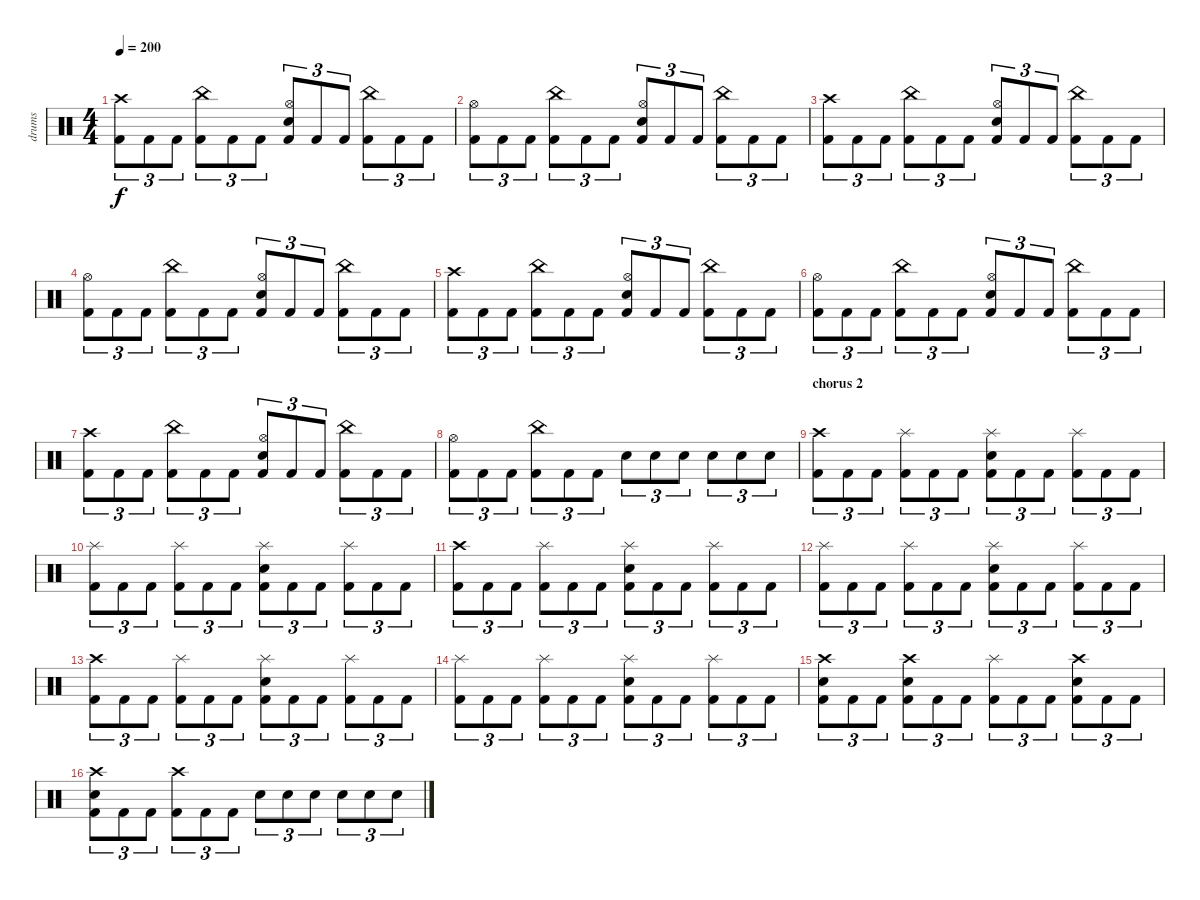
\track ("drums" "drums") {instrument percussion}
\staff {score}
\articulation defaults
\ts (4 4)
\tempo 200
\clef neutral
\ks c
("Crash high (hit)" "Kick (hit) 2").8{tu (3 2) dy f} "Kick (hit) 2".8{tu (3 2)} "Kick (hit) 2".8{tu (3 2)} ("China (hit)" "Kick (hit) 2").8{tu (3 2)} "Kick (hit) 2".8{tu (3 2)} "Kick (hit) 2".8{tu (3 2)} ("Hi-Hat (open)" "Electric Snare (hit)" "Kick (hit) 2").8{tu (3 2)} "Kick (hit) 2".8{tu (3 2)} "Kick (hit) 2".8{tu (3 2)} ("China (hit)" "Kick (hit) 2").8{tu (3 2)} "Kick (hit) 2".8{tu (3 2)} "Kick (hit) 2".8{tu (3 2)} |
("Hi-Hat (open)" "Kick (hit) 2").8{tu (3 2)} "Kick (hit) 2".8{tu (3 2)} "Kick (hit) 2".8{tu (3 2)} ("China (hit)" "Kick (hit) 2").8{tu (3 2)} "Kick (hit) 2".8{tu (3 2)} "Kick (hit) 2".8{tu (3 2)} ("Hi-Hat (open)" "Electric Snare (hit)" "Kick (hit) 2").8{tu (3 2)} "Kick (hit) 2".8{tu (3 2)} "Kick (hit) 2".8{tu (3 2)} ("China (hit)" "Kick (hit) 2").8{tu (3 2)} "Kick (hit) 2".8{tu (3 2)} "Kick (hit) 2".8{tu (3 2)} |
("Crash high (hit)" "Kick (hit) 2").8{tu (3 2)} "Kick (hit) 2".8{tu (3 2)} "Kick (hit) 2".8{tu (3 2)} ("China (hit)" "Kick (hit) 2").8{tu (3 2)} "Kick (hit) 2".8{tu (3 2)} "Kick (hit) 2".8{tu (3 2)} ("Hi-Hat (open)" "Electric Snare (hit)" "Kick (hit) 2").8{tu (3 2)} "Kick (hit) 2".8{tu (3 2)} "Kick (hit) 2".8{tu (3 2)} ("China (hit)" "Kick (hit) 2").8{tu (3 2)} "Kick (hit) 2".8{tu (3 2)} "Kick (hit) 2".8{tu (3 2)} |
("Hi-Hat (open)" "Kick (hit) 2").8{tu (3 2)} "Kick (hit) 2".8{tu (3 2)} "Kick (hit) 2".8{tu (3 2)} ("China (hit)" "Kick (hit) 2").8{tu (3 2)} "Kick (hit) 2".8{tu (3 2)} "Kick (hit) 2".8{tu (3 2)} ("Hi-Hat (open)" "Electric Snare (hit)" "Kick (hit) 2").8{tu (3 2)} "Kick (hit) 2".8{tu (3 2)} "Kick (hit) 2".8{tu (3 2)} ("China (hit)" "Kick (hit) 2").8{tu (3 2)} "Kick (hit) 2".8{tu (3 2)} "Kick (hit) 2".8{tu (3 2)} |
("Crash high (hit)" "Kick (hit) 2").8{tu (3 2)} "Kick (hit) 2".8{tu (3 2)} "Kick (hit) 2".8{tu (3 2)} ("China (hit)" "Kick (hit) 2").8{tu (3 2)} "Kick (hit) 2".8{tu (3 2)} "Kick (hit) 2".8{tu (3 2)} ("Hi-Hat (open)" "Electric Snare (hit)" "Kick (hit) 2").8{tu (3 2)} "Kick (hit) 2".8{tu (3 2)} "Kick (hit) 2".8{tu (3 2)} ("China (hit)" "Kick (hit) 2").8{tu (3 2)} "Kick (hit) 2".8{tu (3 2)} "Kick (hit) 2".8{tu (3 2)} |
("Hi-Hat (open)" "Kick (hit) 2").8{tu (3 2)} "Kick (hit) 2".8{tu (3 2)} "Kick (hit) 2".8{tu (3 2)} ("China (hit)" "Kick (hit) 2").8{tu (3 2)} "Kick (hit) 2".8{tu (3 2)} "Kick (hit) 2".8{tu (3 2)} ("Hi-Hat (open)" "Electric Snare (hit)" "Kick (hit) 2").8{tu (3 2)} "Kick (hit) 2".8{tu (3 2)} "Kick (hit) 2".8{tu (3 2)} ("China (hit)" "Kick (hit) 2").8{tu (3 2)} "Kick (hit) 2".8{tu (3 2)} "Kick (hit) 2".8{tu (3 2)} |
("Crash high (hit)" "Kick (hit) 2").8{tu (3 2)} "Kick (hit) 2".8{tu (3 2)} "Kick (hit) 2".8{tu (3 2)} ("China (hit)" "Kick (hit) 2").8{tu (3 2)} "Kick (hit) 2".8{tu (3 2)} "Kick (hit) 2".8{tu (3 2)} ("Hi-Hat (open)" "Electric Snare (hit)" "Kick (hit) 2").8{tu (3 2)} "Kick (hit) 2".8{tu (3 2)} "Kick (hit) 2".8{tu (3 2)} ("China (hit)" "Kick (hit) 2").8{tu (3 2)} "Kick (hit) 2".8{tu (3 2)} "Kick (hit) 2".8{tu (3 2)} |
("Hi-Hat (open)" "Kick (hit) 2").8{tu (3 2)} "Kick (hit) 2".8{tu (3 2)} "Kick (hit) 2".8{tu (3 2)} ("China (hit)" "Kick (hit) 2").8{tu (3 2)} "Kick (hit) 2".8{tu (3 2)} "Kick (hit) 2".8{tu (3 2)} "Electric Snare (hit)".8{tu (3 2)} "Electric Snare (hit)".8{tu (3 2)} "Electric Snare (hit)".8{tu (3 2)} "Electric Snare (hit)".8{tu (3 2)} "Electric Snare (hit)".8{tu (3 2)} "Electric Snare (hit)".8{tu (3 2)} |
\section ("" "chorus 2")
("Crash high (hit)" "Kick (hit) 2").8{tu (3 2)} "Kick (hit) 2".8{tu (3 2)} "Kick (hit) 2".8{tu (3 2)} ("Splash (hit)" "Kick (hit) 2").8{tu (3 2)} "Kick (hit) 2".8{tu (3 2)} "Kick (hit) 2".8{tu (3 2)} ("Splash (hit)" "Electric Snare (hit)" "Kick (hit) 2").8{tu (3 2)} "Kick (hit) 2".8{tu (3 2)} "Kick (hit) 2".8{tu (3 2)} ("Splash (hit)" "Kick (hit) 2").8{tu (3 2)} "Kick (hit) 2".8{tu (3 2)} "Kick (hit) 2".8{tu (3 2)} |
("Splash (hit)" "Kick (hit) 2").8{tu (3 2)} "Kick (hit) 2".8{tu (3 2)} "Kick (hit) 2".8{tu (3 2)} ("Splash (hit)" "Kick (hit) 2").8{tu (3 2)} "Kick (hit) 2".8{tu (3 2)} "Kick (hit) 2".8{tu (3 2)} ("Splash (hit)" "Electric Snare (hit)" "Kick (hit) 2").8{tu (3 2)} "Kick (hit) 2".8{tu (3 2)} "Kick (hit) 2".8{tu (3 2)} ("Splash (hit)" "Kick (hit) 2").8{tu (3 2)} "Kick (hit) 2".8{tu (3 2)} "Kick (hit) 2".8{tu (3 2)} |
("Crash high (hit)" "Kick (hit) 2").8{tu (3 2)} "Kick (hit) 2".8{tu (3 2)} "Kick (hit) 2".8{tu (3 2)} ("Splash (hit)" "Kick (hit) 2").8{tu (3 2)} "Kick (hit) 2".8{tu (3 2)} "Kick (hit) 2".8{tu (3 2)} ("Splash (hit)" "Electric Snare (hit)" "Kick (hit) 2").8{tu (3 2)} "Kick (hit) 2".8{tu (3 2)} "Kick (hit) 2".8{tu (3 2)} ("Splash (hit)" "Kick (hit) 2").8{tu (3 2)} "Kick (hit) 2".8{tu (3 2)} "Kick (hit) 2".8{tu (3 2)} |
("Splash (hit)" "Kick (hit) 2").8{tu (3 2)} "Kick (hit) 2".8{tu (3 2)} "Kick (hit) 2".8{tu (3 2)} ("Splash (hit)" "Kick (hit) 2").8{tu (3 2)} "Kick (hit) 2".8{tu (3 2)} "Kick (hit) 2".8{tu (3 2)} ("Splash (hit)" "Electric Snare (hit)" "Kick (hit) 2").8{tu (3 2)} "Kick (hit) 2".8{tu (3 2)} "Kick (hit) 2".8{tu (3 2)} ("Splash (hit)" "Kick (hit) 2").8{tu (3 2)} "Kick (hit) 2".8{tu (3 2)} "Kick (hit) 2".8{tu (3 2)} |
("Crash high (hit)" "Kick (hit) 2").8{tu (3 2)} "Kick (hit) 2".8{tu (3 2)} "Kick (hit) 2".8{tu (3 2)} ("Splash (hit)" "Kick (hit) 2").8{tu (3 2)} "Kick (hit) 2".8{tu (3 2)} "Kick (hit) 2".8{tu (3 2)} ("Splash (hit)" "Electric Snare (hit)" "Kick (hit) 2").8{tu (3 2)} "Kick (hit) 2".8{tu (3 2)} "Kick (hit) 2".8{tu (3 2)} ("Splash (hit)" "Kick (hit) 2").8{tu (3 2)} "Kick (hit) 2".8{tu (3 2)} "Kick (hit) 2".8{tu (3 2)} |
("Splash (hit)" "Kick (hit) 2").8{tu (3 2)} "Kick (hit) 2".8{tu (3 2)} "Kick (hit) 2".8{tu (3 2)} ("Splash (hit)" "Kick (hit) 2").8{tu (3 2)} "Kick (hit) 2".8{tu (3 2)} "Kick (hit) 2".8{tu (3 2)} ("Splash (hit)" "Electric Snare (hit)" "Kick (hit) 2").8{tu (3 2)} "Kick (hit) 2".8{tu (3 2)} "Kick (hit) 2".8{tu (3 2)} ("Splash (hit)" "Kick (hit) 2").8{tu (3 2)} "Kick (hit) 2".8{tu (3 2)} "Kick (hit) 2".8{tu (3 2)} |
("Crash high (hit)" "Electric Snare (hit)" "Kick (hit) 2").8{tu (3 2)} "Kick (hit) 2".8{tu (3 2)} "Kick (hit) 2".8{tu (3 2)} ("Crash high (hit)" "Electric Snare (hit)" "Kick (hit) 2").8{tu (3 2)} "Kick (hit) 2".8{tu (3 2)} "Kick (hit) 2".8{tu (3 2)} ("Splash (hit)" "Kick (hit) 2").8{tu (3 2)} "Kick (hit) 2".8{tu (3 2)} "Kick (hit) 2".8{tu (3 2)} ("Crash high (hit)" "Electric Snare (hit)" "Kick (hit) 2").8{tu (3 2)} "Kick (hit) 2".8{tu (3 2)} "Kick (hit) 2".8{tu (3 2)} |
("Crash high (hit)" "Electric Snare (hit)" "Kick (hit) 2").8{tu (3 2)} "Kick (hit) 2".8{tu (3 2)} "Kick (hit) 2".8{tu (3 2)} ("Crash high (hit)" "Kick (hit) 2").8{tu (3 2)} "Kick (hit) 2".8{tu (3 2)} "Kick (hit) 2".8{tu (3 2)} "Electric Snare (hit)".8{tu (3 2)} "Electric Snare (hit)".8{tu (3 2)} "Electric Snare (hit)".8{tu (3 2)} "Electric Snare (hit)".8{tu (3 2)} "Electric Snare (hit)".8{tu (3 2)} "Electric Snare (hit)".8{tu (3 2)}
